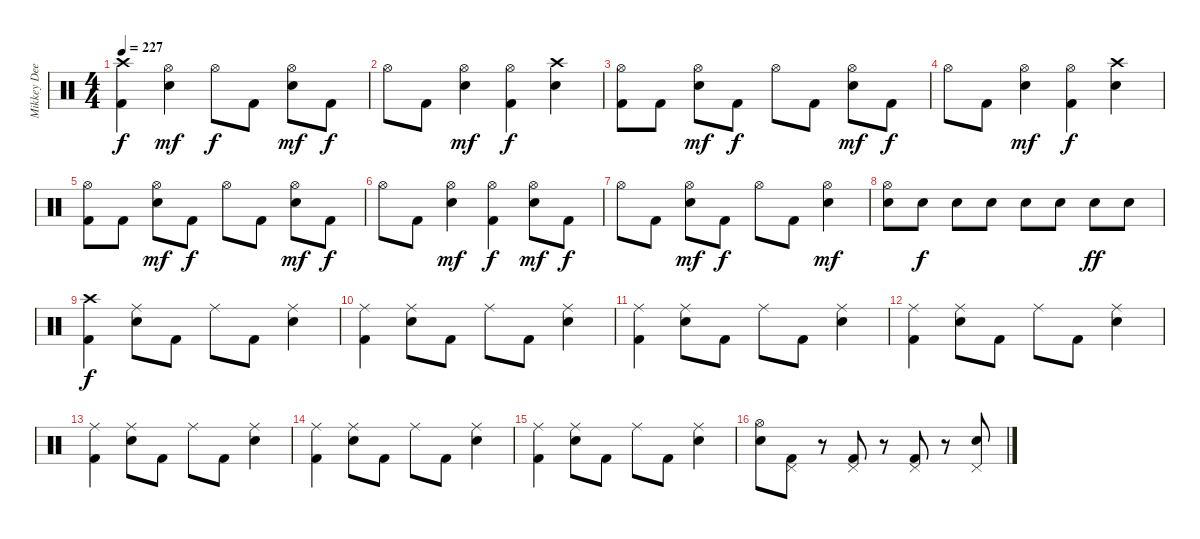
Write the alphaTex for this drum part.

\track ("Mikkey Dee" "Mikkey Dee") {instrument percussion}
\staff {score}
\articulation defaults
\ts (4 4)
\tempo 227
\clef neutral
\ks c
("Kick (hit) 2" "Crash high (hit)").4{dy f} ("Electric Snare (hit)" "Hi-Hat (open)").4{dy mf} "Hi-Hat (open)".8{dy f} "Kick (hit) 2".8 ("Electric Snare (hit)" "Hi-Hat (open)").8{dy mf} "Kick (hit) 2".8{dy f} |
"Hi-Hat (open)".8 "Kick (hit) 2".8 ("Electric Snare (hit)" "Hi-Hat (open)").4{dy mf} ("Hi-Hat (open)" "Kick (hit) 2").4{dy f} ("Crash high (hit)" "Electric Snare (hit)").4 |
("Hi-Hat (open)" "Kick (hit) 2").8 "Kick (hit) 2".8 ("Hi-Hat (open)" "Electric Snare (hit)").8{dy mf} "Kick (hit) 2".8{dy f} "Hi-Hat (open)".8 "Kick (hit) 2".8 ("Electric Snare (hit)" "Hi-Hat (open)").8{dy mf} "Kick (hit) 2".8{dy f} |
"Hi-Hat (open)".8 "Kick (hit) 2".8 ("Hi-Hat (open)" "Electric Snare (hit)").4{dy mf} ("Kick (hit) 2" "Hi-Hat (open)").4{dy f} ("Crash high (hit)" "Electric Snare (hit)").4 |
("Hi-Hat (open)" "Kick (hit) 2").8 "Kick (hit) 2".8 ("Electric Snare (hit)" "Hi-Hat (open)").8{dy mf} "Kick (hit) 2".8{dy f} "Hi-Hat (open)".8 "Kick (hit) 2".8 ("Electric Snare (hit)" "Hi-Hat (open)").8{dy mf} "Kick (hit) 2".8{dy f} |
"Hi-Hat (open)".8 "Kick (hit) 2".8 ("Electric Snare (hit)" "Hi-Hat (open)").4{dy mf} ("Kick (hit) 2" "Hi-Hat (open)").4{dy f} ("Electric Snare (hit)" "Hi-Hat (open)").8{dy mf} "Kick (hit) 2".8{dy f} |
"Hi-Hat (open)".8 "Kick (hit) 2".8 ("Hi-Hat (open)" "Electric Snare (hit)").8{dy mf} "Kick (hit) 2".8{dy f} "Hi-Hat (open)".8 "Kick (hit) 2".8 ("Hi-Hat (open)" "Electric Snare (hit)").4{dy mf} |
("Electric Snare (hit)" "Hi-Hat (open)").8 "Electric Snare (hit)".8{dy f} "Electric Snare (hit)".8 "Electric Snare (hit)".8 "Electric Snare (hit)".8 "Electric Snare (hit)".8 "Electric Snare (hit)".8{dy ff} "Electric Snare (hit)".8 |
("Kick (hit) 2" "Crash high (hit)").4{dy f} ("Ride (middle)" "Electric Snare (hit)").8 "Kick (hit) 2".8 "Ride (middle)".8 "Kick (hit) 2".8 ("Ride (middle)" "Electric Snare (hit)").4 |
("Ride (middle)" "Kick (hit) 2").4 ("Electric Snare (hit)" "Ride (middle)").8 "Kick (hit) 2".8 "Ride (middle)".8 "Kick (hit) 2".8 ("Ride (middle)" "Electric Snare (hit)").4 |
("Kick (hit) 2" "Ride (middle)").4 ("Ride (middle)" "Electric Snare (hit)").8 "Kick (hit) 2".8 "Ride (middle)".8 "Kick (hit) 2".8 ("Ride (middle)" "Electric Snare (hit)").4 |
("Ride (middle)" "Kick (hit) 2").4 ("Ride (middle)" "Electric Snare (hit)").8 "Kick (hit) 2".8 "Ride (middle)".8 "Kick (hit) 2".8 ("Ride (middle)" "Electric Snare (hit)").4 |
("Kick (hit) 2" "Ride (middle)").4 ("Electric Snare (hit)" "Ride (middle)").8 "Kick (hit) 2".8 "Ride (middle)".8 "Kick (hit) 2".8 ("Electric Snare (hit)" "Ride (middle)").4 |
("Kick (hit) 2" "Ride (middle)").4 ("Ride (middle)" "Electric Snare (hit)").8 "Kick (hit) 2".8 "Ride (middle)".8 "Kick (hit) 2".8 ("Ride (middle)" "Electric Snare (hit)").4 |
("Kick (hit) 2" "Ride (middle)").4 ("Ride (middle)" "Electric Snare (hit)").8 "Kick (hit) 2".8 "Ride (middle)".8 "Kick (hit) 2".8 ("Electric Snare (hit)" "Ride (middle)").4 |
("Hi-Hat (open)" "Electric Snare (hit)").8 ("Pedal Hi-Hat (hit)" "Kick (hit) 2").8 r.8 ("Pedal Hi-Hat (hit)" "Kick (hit) 2").8 r.8 ("Kick (hit) 2" "Pedal Hi-Hat (hit)").8 r.8 ("Pedal Hi-Hat (hit)" "Electric Snare (hit)").8
